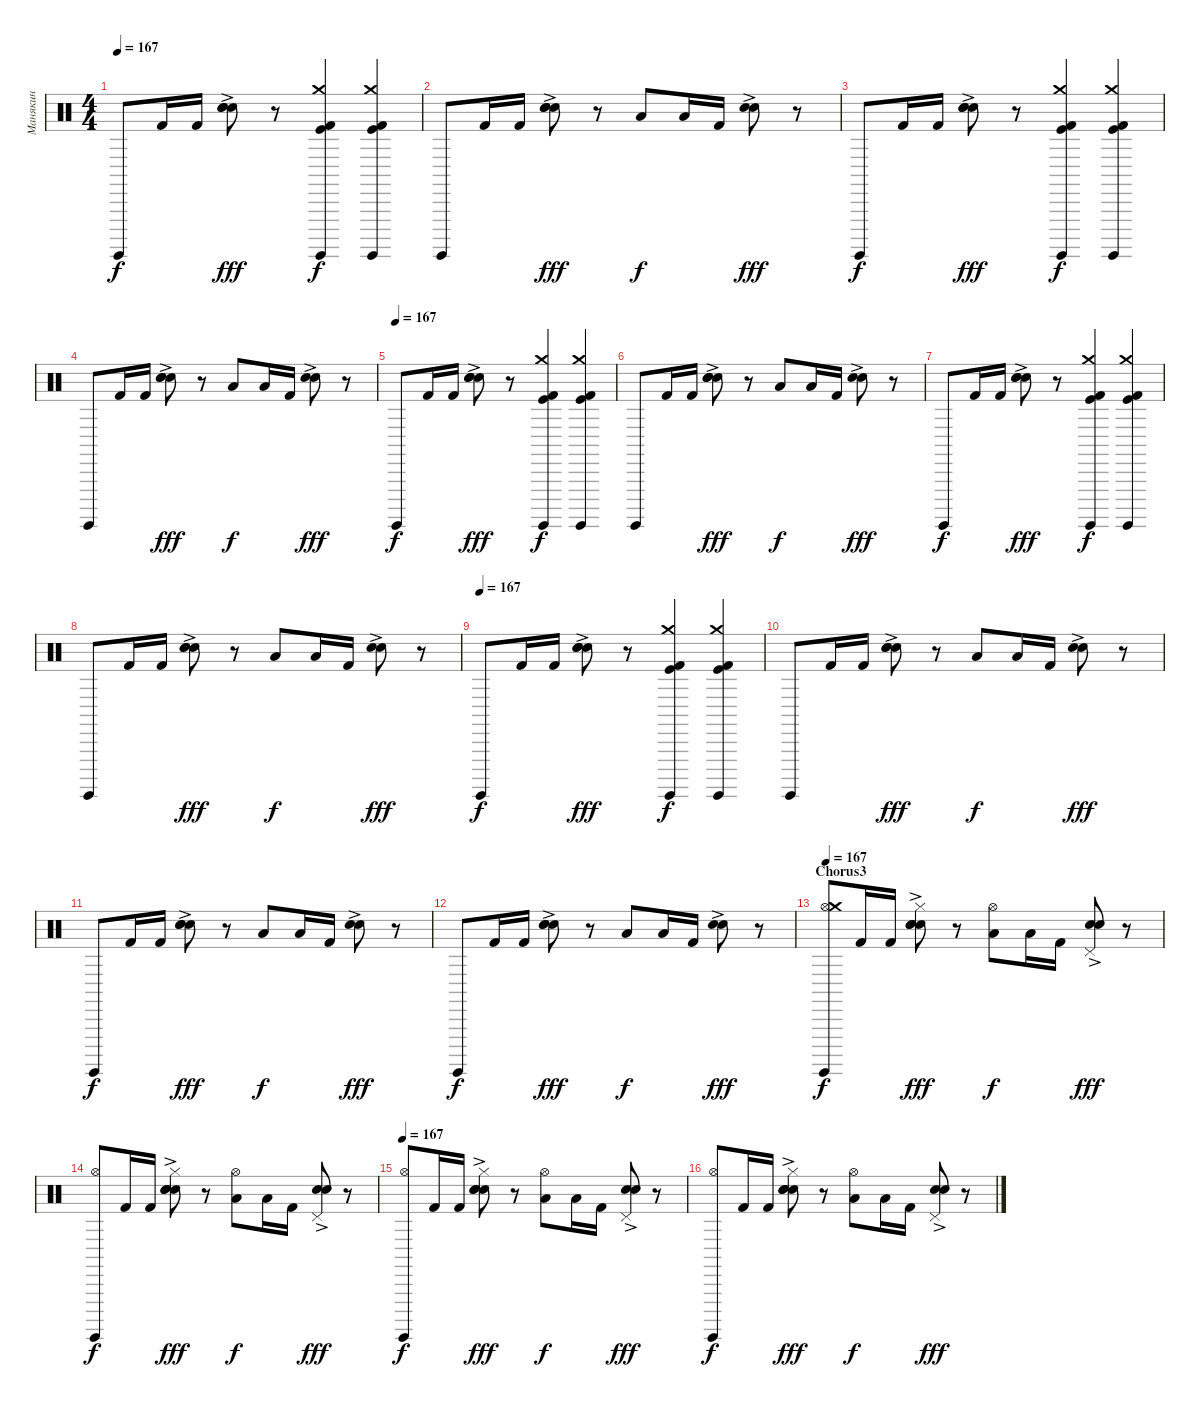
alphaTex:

\track ("Манякин" "Манякин") {instrument percussion}
\staff {score}
\articulation defaults
\ts (4 4)
\tempo 167
\clef neutral
\ks c "Surdo (hit)".8{dy f} "Kick (hit) 2".16 "Kick (hit) 2".16
("Electric Snare (hit)"{ac} "Snare (hit) 2" "Electric Snare (hit)").8{dy fff} r.8 ("Kick (hit)" "Crash medium (hit)" "Kick (hit) 2" "Surdo (hit)").4{dy f} ("Kick (hit)" "Crash medium (hit)" "Kick (hit) 2" "Surdo (hit)").4 |
"Surdo (hit)".8 "Kick (hit) 2".16 "Kick (hit) 2".16 ("Electric Snare (hit)"{ac} "Snare (hit) 2" "Electric Snare (hit)").8{dy fff} r.8 "Low Tom (hit)".8{dy f} "Low Tom (hit)".16 "Kick (hit) 2".16 ("Electric Snare (hit)"{ac} "Snare (hit) 2").8{dy fff} r.8 |
"Surdo (hit)".8{dy f} "Kick (hit) 2".16 "Kick (hit) 2".16 ("Electric Snare (hit)"{ac} "Snare (hit) 2" "Electric Snare (hit)").8{dy fff} r.8 ("Kick (hit)" "Crash medium (hit)" "Kick (hit) 2" "Surdo (hit)").4{dy f} ("Kick (hit)" "Crash medium (hit)" "Kick (hit) 2" "Surdo (hit)").4 |
"Surdo (hit)".8 "Kick (hit) 2".16 "Kick (hit) 2".16 ("Electric Snare (hit)"{ac} "Snare (hit) 2" "Electric Snare (hit)").8{dy fff} r.8 "Low Tom (hit)".8{dy f} "Low Tom (hit)".16 "Kick (hit) 2".16 ("Electric Snare (hit)"{ac} "Snare (hit) 2").8{dy fff} r.8 |
\tempo (167)
"Surdo (hit)".8{dy f} "Kick (hit) 2".16 "Kick (hit) 2".16 ("Electric Snare (hit)"{ac} "Snare (hit) 2" "Electric Snare (hit)").8{dy fff} r.8 ("Kick (hit)" "Crash medium (hit)" "Kick (hit) 2" "Surdo (hit)").4{dy f} ("Kick (hit)" "Crash medium (hit)" "Kick (hit) 2" "Surdo (hit)").4 |
"Surdo (hit)".8 "Kick (hit) 2".16 "Kick (hit) 2".16 ("Electric Snare (hit)"{ac} "Snare (hit) 2" "Electric Snare (hit)").8{dy fff} r.8 "Low Tom (hit)".8{dy f} "Low Tom (hit)".16 "Kick (hit) 2".16 ("Electric Snare (hit)"{ac} "Snare (hit) 2").8{dy fff} r.8 |
"Surdo (hit)".8{dy f} "Kick (hit) 2".16 "Kick (hit) 2".16 ("Electric Snare (hit)"{ac} "Snare (hit) 2" "Electric Snare (hit)").8{dy fff} r.8 ("Kick (hit)" "Crash medium (hit)" "Kick (hit) 2" "Surdo (hit)").4{dy f} ("Kick (hit)" "Crash medium (hit)" "Kick (hit) 2" "Surdo (hit)").4 |
"Surdo (hit)".8 "Kick (hit) 2".16 "Kick (hit) 2".16 ("Electric Snare (hit)"{ac} "Snare (hit) 2" "Electric Snare (hit)").8{dy fff} r.8 "Low Tom (hit)".8{dy f} "Low Tom (hit)".16 "Kick (hit) 2".16 ("Electric Snare (hit)"{ac} "Snare (hit) 2").8{dy fff} r.8 |
\tempo (167)
"Surdo (hit)".8{dy f} "Kick (hit) 2".16 "Kick (hit) 2".16 ("Electric Snare (hit)"{ac} "Snare (hit) 2" "Electric Snare (hit)").8{dy fff} r.8 ("Kick (hit)" "Crash medium (hit)" "Kick (hit) 2" "Surdo (hit)").4{dy f} ("Kick (hit)" "Crash medium (hit)" "Kick (hit) 2" "Surdo (hit)").4 |
"Surdo (hit)".8 "Kick (hit) 2".16 "Kick (hit) 2".16 ("Electric Snare (hit)"{ac} "Snare (hit) 2" "Electric Snare (hit)").8{dy fff} r.8 "Low Tom (hit)".8{dy f} "Low Tom (hit)".16 "Kick (hit) 2".16 ("Electric Snare (hit)"{ac} "Snare (hit) 2").8{dy fff} r.8 |
"Surdo (hit)".8{dy f} "Kick (hit) 2".16 "Kick (hit) 2".16 ("Electric Snare (hit)"{ac} "Snare (hit) 2" "Electric Snare (hit)").8{dy fff} r.8 "Low Tom (hit)".8{dy f} "Low Tom (hit)".16 "Kick (hit) 2".16 ("Electric Snare (hit)"{ac} "Snare (hit) 2").8{dy fff} r.8 |
"Surdo (hit)".8{dy f} "Kick (hit) 2".16 "Kick (hit) 2".16 ("Electric Snare (hit)"{ac} "Snare (hit) 2" "Electric Snare (hit)").8{dy fff} r.8 "Low Tom (hit)".8{dy f} "Low Tom (hit)".16 "Kick (hit) 2".16 ("Electric Snare (hit)"{ac} "Snare (hit) 2").8{dy fff} r.8 |
\section ("" "Chorus3")
\tempo 167
("Surdo (hit)" "Hi-Hat (open)" "Crash medium (hit)").8{dy f volume 15} "Kick (hit) 2".16 "Kick (hit) 2".16 ("Hi-Hat (closed)" "Electric Snare (hit)"{ac} "Snare (hit) 2" "Electric Snare (hit)").8{dy fff} r.8 ("Low Tom (hit)" "Hi-Hat (open)").8{dy f} "Low Tom (hit)".16 "Kick (hit) 2".16 ("Electric Snare (hit)"{ac} "Snare (hit) 2" "Pedal Hi-Hat (hit)").8{dy fff} r.8 |
("Surdo (hit)" "Hi-Hat (open)").8{dy f} "Kick (hit) 2".16 "Kick (hit) 2".16 ("Hi-Hat (closed)" "Electric Snare (hit)"{ac} "Snare (hit) 2" "Electric Snare (hit)").8{dy fff} r.8 ("Low Tom (hit)" "Hi-Hat (open)").8{dy f} "Low Tom (hit)".16 "Kick (hit) 2".16 ("Electric Snare (hit)"{ac} "Snare (hit) 2" "Pedal Hi-Hat (hit)").8{dy fff} r.8 |
\tempo 167
("Surdo (hit)" "Hi-Hat (open)").8{dy f} "Kick (hit) 2".16 "Kick (hit) 2".16 ("Hi-Hat (closed)" "Electric Snare (hit)"{ac} "Snare (hit) 2" "Electric Snare (hit)").8{dy fff} r.8 ("Low Tom (hit)" "Hi-Hat (open)").8{dy f} "Low Tom (hit)".16 "Kick (hit) 2".16 ("Electric Snare (hit)"{ac} "Snare (hit) 2" "Pedal Hi-Hat (hit)").8{dy fff} r.8 |
("Surdo (hit)" "Hi-Hat (open)").8{dy f} "Kick (hit) 2".16 "Kick (hit) 2".16 ("Hi-Hat (closed)" "Electric Snare (hit)"{ac} "Snare (hit) 2" "Electric Snare (hit)").8{dy fff} r.8 ("Low Tom (hit)" "Hi-Hat (open)").8{dy f} "Low Tom (hit)".16 "Kick (hit) 2".16 ("Electric Snare (hit)"{ac} "Snare (hit) 2" "Pedal Hi-Hat (hit)").8{dy fff} r.8
